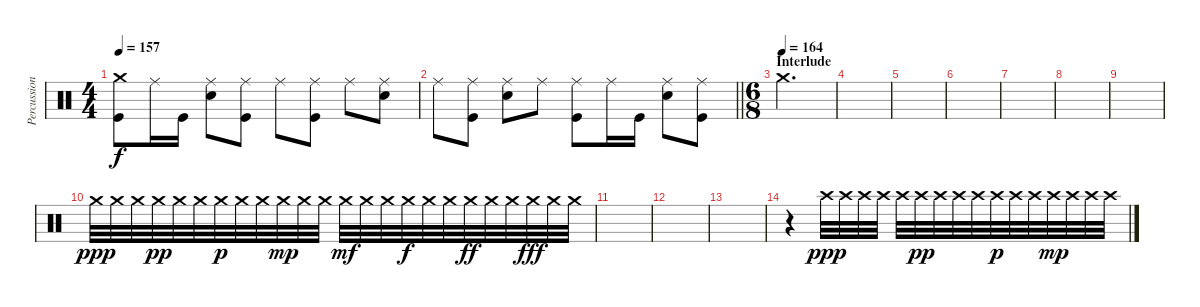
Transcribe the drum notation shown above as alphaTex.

\track ("Percussion" "Percussion") {instrument percussion}
\staff {score}
\articulation defaults
\ts (4 4)
\tempo 157
\clef neutral
\ks c
("Crash medium (hit)" "Kick (hit)").8{dy f} "Ride (middle)".16 "Kick (hit)".16 ("Ride (middle)" "Snare (hit) 2").8 ("Ride (middle)" "Kick (hit)").8 "Ride (middle)".8 ("Ride (middle)" "Kick (hit)").8 "Ride (middle)".8 ("Ride (middle)" "Snare (hit) 2").8 |
\barLineRight lightlight "Ride (middle)".8
("Ride (middle)" "Kick (hit)").8 ("Ride (middle)" "Snare (hit) 2").8 "Ride (middle)".8 ("Ride (middle)" "Kick (hit)").8 "Ride (middle)".16 "Kick (hit)".16 ("Ride (middle)" "Snare (hit) 2").8 ("Ride (middle)" "Kick (hit)").8 |
\ts (6 8)
\section ("" "Interlude")
\tempo (164)
"Crash medium (hit)".2{d} |
|
|
|
|
|
|
"Crash medium (hit)".32{dy ppp} "Crash medium (hit)".32 "Crash medium (hit)".32 "Crash medium (hit)".32{dy pp} "Crash medium (hit)".32 "Crash medium (hit)".32 "Crash medium (hit)".32{dy p} "Crash medium (hit)".32 "Crash medium (hit)".32 "Crash medium (hit)".32{dy mp} "Crash medium (hit)".32 "Crash medium (hit)".32 "Crash medium (hit)".32{dy mf} "Crash medium (hit)".32 "Crash medium (hit)".32 "Crash medium (hit)".32{dy f} "Crash medium (hit)".32 "Crash medium (hit)".32 "Crash medium (hit)".32{dy ff} "Crash medium (hit)".32 "Crash medium (hit)".32 "Crash medium (hit)".32{dy fff} "Crash medium (hit)".32 "Crash medium (hit)".32 |
|
|
|
r.4 "Crash high (hit)".32{dy ppp} "Crash high (hit)".32 "Crash high (hit)".32 "Crash high (hit)".32 "Crash high (hit)".32 "Crash high (hit)".32{dy pp} "Crash high (hit)".32 "Crash high (hit)".32 "Crash high (hit)".32 "Crash high (hit)".32{dy p} "Crash high (hit)".32 "Crash high (hit)".32 "Crash high (hit)".32{dy mp} "Crash high (hit)".32 "Crash high (hit)".32 "Crash high (hit)".32
